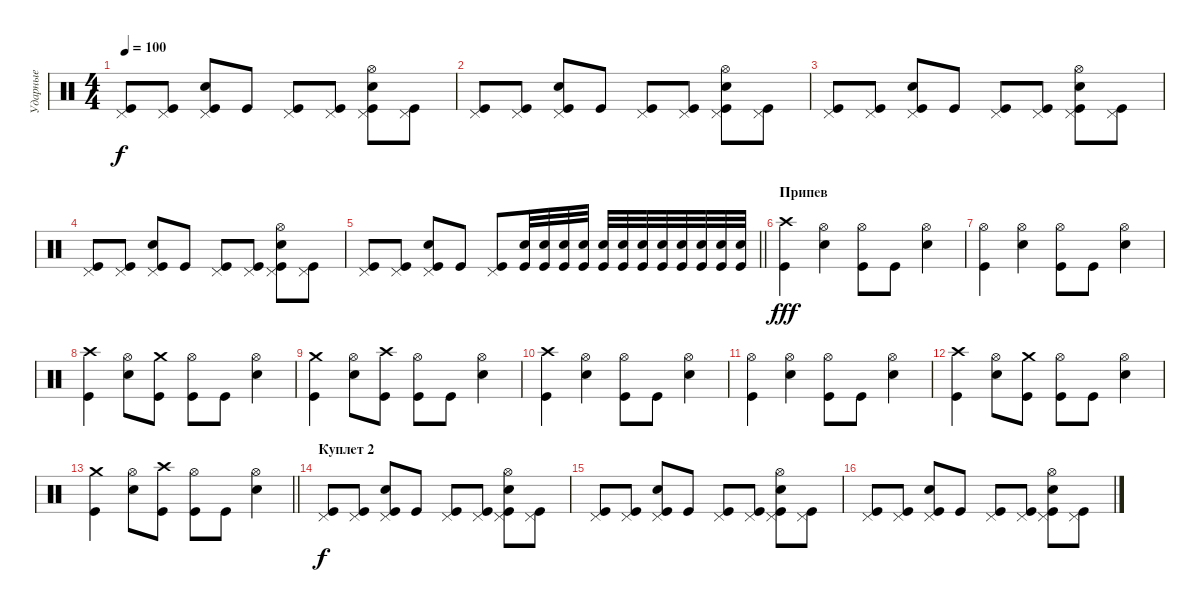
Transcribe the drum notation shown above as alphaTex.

\track ("Ударные" "Ударные") {instrument percussion}
\staff {score}
\articulation defaults
\ts (4 4)
\tempo 100
\clef neutral
\ks c
("Kick (hit)" "Pedal Hi-Hat (hit)").8{dy f} ("Pedal Hi-Hat (hit)" "Kick (hit)").8 ("Snare (hit) 2" "Kick (hit)" "Pedal Hi-Hat (hit)").8 "Kick (hit)".8 ("Kick (hit)" "Pedal Hi-Hat (hit)").8 ("Pedal Hi-Hat (hit)" "Kick (hit)").8 ("Kick (hit)" "Pedal Hi-Hat (hit)" "Snare (hit) 2" "Hi-Hat (open)").8 ("Kick (hit)" "Pedal Hi-Hat (hit)").8 |
("Kick (hit)" "Pedal Hi-Hat (hit)").8 ("Pedal Hi-Hat (hit)" "Kick (hit)").8 ("Snare (hit) 2" "Kick (hit)" "Pedal Hi-Hat (hit)").8 "Kick (hit)".8 ("Kick (hit)" "Pedal Hi-Hat (hit)").8 ("Pedal Hi-Hat (hit)" "Kick (hit)").8 ("Kick (hit)" "Pedal Hi-Hat (hit)" "Snare (hit) 2" "Hi-Hat (open)").8 ("Kick (hit)" "Pedal Hi-Hat (hit)").8 |
("Kick (hit)" "Pedal Hi-Hat (hit)").8 ("Pedal Hi-Hat (hit)" "Kick (hit)").8 ("Snare (hit) 2" "Kick (hit)" "Pedal Hi-Hat (hit)").8 "Kick (hit)".8 ("Kick (hit)" "Pedal Hi-Hat (hit)").8 ("Pedal Hi-Hat (hit)" "Kick (hit)").8 ("Kick (hit)" "Pedal Hi-Hat (hit)" "Snare (hit) 2" "Hi-Hat (open)").8 ("Kick (hit)" "Pedal Hi-Hat (hit)").8 |
("Kick (hit)" "Pedal Hi-Hat (hit)").8 ("Pedal Hi-Hat (hit)" "Kick (hit)").8 ("Snare (hit) 2" "Kick (hit)" "Pedal Hi-Hat (hit)").8 "Kick (hit)".8 ("Kick (hit)" "Pedal Hi-Hat (hit)").8 ("Pedal Hi-Hat (hit)" "Kick (hit)").8 ("Kick (hit)" "Pedal Hi-Hat (hit)" "Snare (hit) 2" "Hi-Hat (open)").8 ("Kick (hit)" "Pedal Hi-Hat (hit)").8 |
\barLineRight lightlight
("Kick (hit)" "Pedal Hi-Hat (hit)").8 ("Pedal Hi-Hat (hit)" "Kick (hit)").8 ("Snare (hit) 2" "Kick (hit)" "Pedal Hi-Hat (hit)").8 "Kick (hit)".8 ("Kick (hit)" "Pedal Hi-Hat (hit)").8 ("Snare (hit) 2" "Kick (hit)").32 ("Snare (hit) 2" "Kick (hit)").32 ("Kick (hit)" "Snare (hit) 2").32 ("Snare (hit) 2" "Kick (hit)").32 ("Kick (hit)" "Snare (hit) 2").32 ("Snare (hit) 2" "Kick (hit)").32 ("Kick (hit)" "Snare (hit) 2").32 ("Snare (hit) 2" "Kick (hit)").32 ("Kick (hit)" "Snare (hit) 2").32 ("Snare (hit) 2" "Kick (hit)").32 ("Kick (hit)" "Snare (hit) 2").32 ("Snare (hit) 2" "Kick (hit)").32 |
\section ("" "Припев")
("Crash high (hit)" "Kick (hit)").4{dy fff} ("Hi-Hat (open)" "Electric Snare (hit)").4 ("Hi-Hat (open)" "Kick (hit)").8 "Kick (hit)".8 ("Hi-Hat (open)" "Electric Snare (hit)").4 |
("Hi-Hat (open)" "Kick (hit)").4 ("Hi-Hat (open)" "Electric Snare (hit)").4 ("Hi-Hat (open)" "Kick (hit)").8 "Kick (hit)".8 ("Hi-Hat (open)" "Electric Snare (hit)").4 |
("Crash high (hit)" "Kick (hit)").4 ("Hi-Hat (open)" "Electric Snare (hit)").8 ("Crash medium (hit)" "Kick (hit)").8 ("Hi-Hat (open)" "Kick (hit)").8 "Kick (hit)".8 ("Hi-Hat (open)" "Electric Snare (hit)").4 |
("Crash medium (hit)" "Kick (hit)").4 ("Hi-Hat (open)" "Electric Snare (hit)").8 ("Crash high (hit)" "Kick (hit)").8 ("Hi-Hat (open)" "Kick (hit)").8 "Kick (hit)".8 ("Hi-Hat (open)" "Electric Snare (hit)").4 |
("Crash high (hit)" "Kick (hit)").4 ("Hi-Hat (open)" "Electric Snare (hit)").4 ("Hi-Hat (open)" "Kick (hit)").8 "Kick (hit)".8 ("Hi-Hat (open)" "Electric Snare (hit)").4 |
("Hi-Hat (open)" "Kick (hit)").4 ("Hi-Hat (open)" "Electric Snare (hit)").4 ("Hi-Hat (open)" "Kick (hit)").8 "Kick (hit)".8 ("Hi-Hat (open)" "Electric Snare (hit)").4 |
("Crash high (hit)" "Kick (hit)").4 ("Hi-Hat (open)" "Electric Snare (hit)").8 ("Crash medium (hit)" "Kick (hit)").8 ("Hi-Hat (open)" "Kick (hit)").8 "Kick (hit)".8 ("Hi-Hat (open)" "Electric Snare (hit)").4 |
\barLineRight lightlight
("Crash medium (hit)" "Kick (hit)").4 ("Hi-Hat (open)" "Electric Snare (hit)").8 ("Crash high (hit)" "Kick (hit)").8 ("Hi-Hat (open)" "Kick (hit)").8 "Kick (hit)".8 ("Hi-Hat (open)" "Electric Snare (hit)").4 |
\section ("" "Куплет 2")
("Kick (hit)" "Pedal Hi-Hat (hit)").8{dy f} ("Pedal Hi-Hat (hit)" "Kick (hit)").8 ("Snare (hit) 2" "Kick (hit)" "Pedal Hi-Hat (hit)").8 "Kick (hit)".8 ("Kick (hit)" "Pedal Hi-Hat (hit)").8 ("Pedal Hi-Hat (hit)" "Kick (hit)").8 ("Kick (hit)" "Pedal Hi-Hat (hit)" "Snare (hit) 2" "Hi-Hat (open)").8 ("Kick (hit)" "Pedal Hi-Hat (hit)").8 |
("Kick (hit)" "Pedal Hi-Hat (hit)").8 ("Pedal Hi-Hat (hit)" "Kick (hit)").8 ("Snare (hit) 2" "Kick (hit)" "Pedal Hi-Hat (hit)").8 "Kick (hit)".8 ("Kick (hit)" "Pedal Hi-Hat (hit)").8 ("Pedal Hi-Hat (hit)" "Kick (hit)").8 ("Kick (hit)" "Pedal Hi-Hat (hit)" "Snare (hit) 2" "Hi-Hat (open)").8 ("Kick (hit)" "Pedal Hi-Hat (hit)").8 |
("Kick (hit)" "Pedal Hi-Hat (hit)").8 ("Pedal Hi-Hat (hit)" "Kick (hit)").8 ("Snare (hit) 2" "Kick (hit)" "Pedal Hi-Hat (hit)").8 "Kick (hit)".8 ("Kick (hit)" "Pedal Hi-Hat (hit)").8 ("Pedal Hi-Hat (hit)" "Kick (hit)").8 ("Kick (hit)" "Pedal Hi-Hat (hit)" "Snare (hit) 2" "Hi-Hat (open)").8 ("Kick (hit)" "Pedal Hi-Hat (hit)").8
